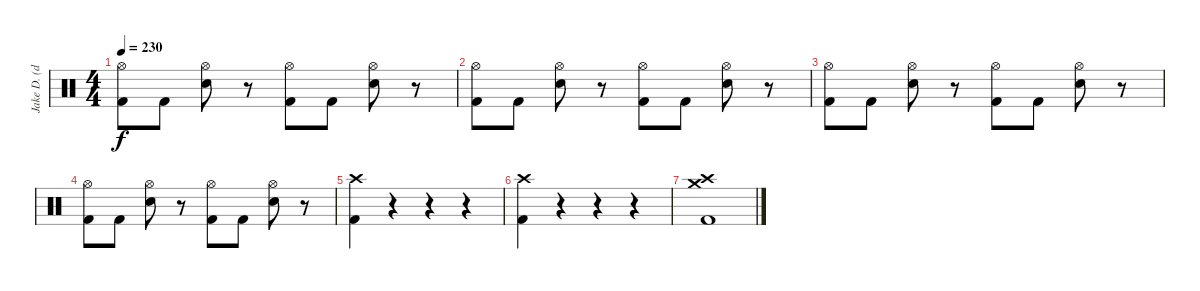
\track ("Jake D. (drums)" "Jake D. (d") {instrument percussion}
\staff {score}
\articulation defaults
\ts (4 4)
\tempo 230
\clef neutral
\ks c
("Hi-Hat (open)" "Kick (hit) 2").8{dy f} "Kick (hit) 2".8 ("Hi-Hat (open)" "Electric Snare (hit)").8 r.8 ("Hi-Hat (open)" "Kick (hit) 2").8 "Kick (hit) 2".8 ("Hi-Hat (open)" "Electric Snare (hit)").8 r.8 |
("Hi-Hat (open)" "Kick (hit) 2").8 "Kick (hit) 2".8 ("Hi-Hat (open)" "Electric Snare (hit)").8 r.8 ("Hi-Hat (open)" "Kick (hit) 2").8 "Kick (hit) 2".8 ("Hi-Hat (open)" "Electric Snare (hit)").8 r.8 |
("Hi-Hat (open)" "Kick (hit) 2").8 "Kick (hit) 2".8 ("Hi-Hat (open)" "Electric Snare (hit)").8 r.8 ("Hi-Hat (open)" "Kick (hit) 2").8 "Kick (hit) 2".8 ("Hi-Hat (open)" "Electric Snare (hit)").8 r.8 |
("Hi-Hat (open)" "Kick (hit) 2").8 "Kick (hit) 2".8 ("Hi-Hat (open)" "Electric Snare (hit)").8 r.8 ("Hi-Hat (open)" "Kick (hit) 2").8 "Kick (hit) 2".8 ("Hi-Hat (open)" "Electric Snare (hit)").8 r.8 |
("Crash high (hit)" "Kick (hit) 2").4 r.4 r.4 r.4 |
("Crash high (hit)" "Kick (hit) 2").4 r.4 r.4{volume 0} r.4 |
("Crash high (hit)" "Crash medium (hit)" "Kick (hit) 2").1{volume 16}
